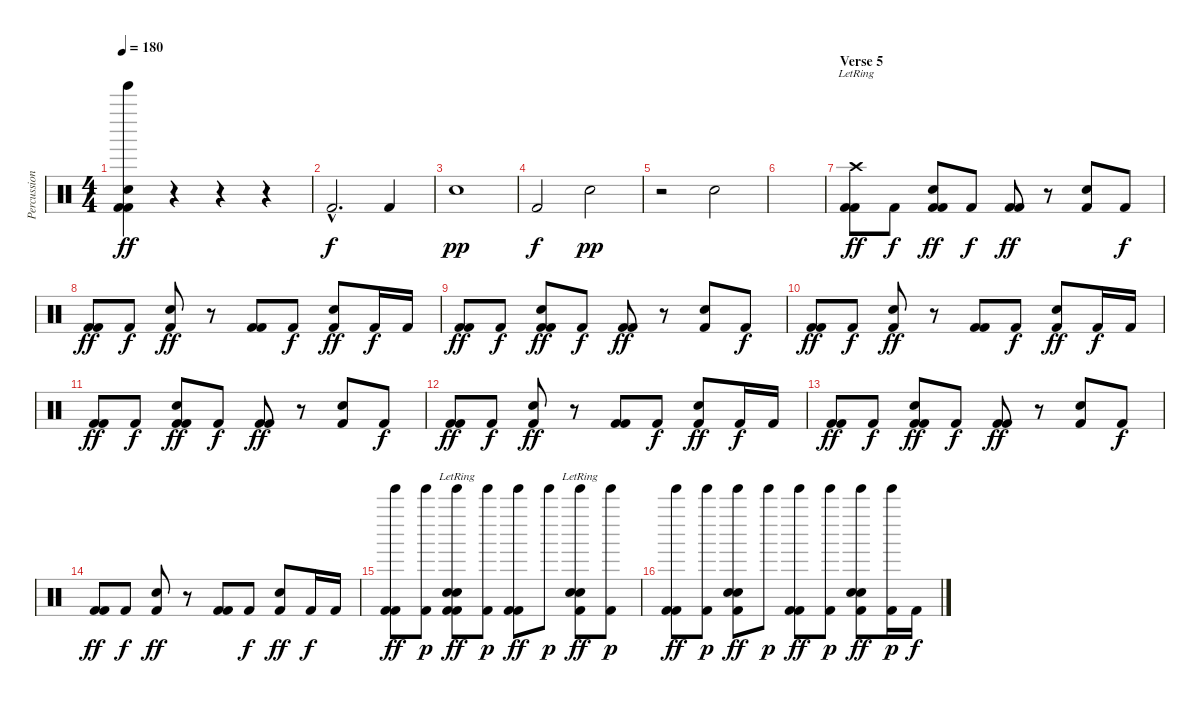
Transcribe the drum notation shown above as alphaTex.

\track ("Percussion" "Percussion") {instrument percussion}
\staff {score}
\articulation defaults
\ts (4 4)
\tempo 180
\clef neutral
\ks c
("Tinkle Bell (hit)" "Electric Snare (hit)" "Kick (hit) 2" "Kick (hit) 2").4{dy ff} r.4 r.4 r.4 |
"Kick (hit) 2"{hac}.2{d dy f} "Kick (hit) 2".4 |
"Electric Snare (hit)".1{dy pp} |
"Kick (hit) 2".2{dy f} "Electric Snare (hit)".2{dy pp} |
r.2 "Electric Snare (hit)".2 |
|
\section ("" "Verse 5")
("Crash high (hit)"{lr} "Kick (hit) 2" "Kick (hit) 2").8{dy ff} "Kick (hit) 2".8{dy f} ("Electric Snare (hit)" "Kick (hit) 2" "Kick (hit) 2").8{dy ff} "Kick (hit) 2".8{dy f} ("Kick (hit) 2" "Kick (hit) 2").8{dy ff} r.8 ("Electric Snare (hit)" "Kick (hit) 2").8 "Kick (hit) 2".8{dy f} |
("Kick (hit) 2" "Kick (hit) 2").8{dy ff} "Kick (hit) 2".8{dy f} ("Electric Snare (hit)" "Kick (hit) 2").8{dy ff} r.8 ("Kick (hit) 2" "Kick (hit) 2").8 "Kick (hit) 2".8{dy f} ("Electric Snare (hit)" "Kick (hit) 2").8{dy ff} "Kick (hit) 2".16{dy f} "Kick (hit) 2".16 |
("Kick (hit) 2" "Kick (hit) 2").8{dy ff} "Kick (hit) 2".8{dy f} ("Electric Snare (hit)" "Kick (hit) 2" "Kick (hit) 2").8{dy ff} "Kick (hit) 2".8{dy f} ("Kick (hit) 2" "Kick (hit) 2").8{dy ff} r.8 ("Electric Snare (hit)" "Kick (hit) 2").8 "Kick (hit) 2".8{dy f} |
("Kick (hit) 2" "Kick (hit) 2").8{dy ff} "Kick (hit) 2".8{dy f} ("Electric Snare (hit)" "Kick (hit) 2").8{dy ff} r.8 ("Kick (hit) 2" "Kick (hit) 2").8 "Kick (hit) 2".8{dy f} ("Electric Snare (hit)" "Kick (hit) 2").8{dy ff} "Kick (hit) 2".16{dy f} "Kick (hit) 2".16 |
("Kick (hit) 2" "Kick (hit) 2").8{dy ff} "Kick (hit) 2".8{dy f} ("Electric Snare (hit)" "Kick (hit) 2" "Kick (hit) 2").8{dy ff} "Kick (hit) 2".8{dy f} ("Kick (hit) 2" "Kick (hit) 2").8{dy ff} r.8 ("Electric Snare (hit)" "Kick (hit) 2").8 "Kick (hit) 2".8{dy f} |
("Kick (hit) 2" "Kick (hit) 2").8{dy ff} "Kick (hit) 2".8{dy f} ("Electric Snare (hit)" "Kick (hit) 2").8{dy ff} r.8 ("Kick (hit) 2" "Kick (hit) 2").8 "Kick (hit) 2".8{dy f} ("Electric Snare (hit)" "Kick (hit) 2").8{dy ff} "Kick (hit) 2".16{dy f} "Kick (hit) 2".16 |
("Kick (hit) 2" "Kick (hit) 2").8{dy ff} "Kick (hit) 2".8{dy f} ("Electric Snare (hit)" "Kick (hit) 2" "Kick (hit) 2").8{dy ff} "Kick (hit) 2".8{dy f} ("Kick (hit) 2" "Kick (hit) 2").8{dy ff} r.8 ("Electric Snare (hit)" "Kick (hit) 2").8 "Kick (hit) 2".8{dy f} |
("Kick (hit) 2" "Kick (hit) 2").8{dy ff} "Kick (hit) 2".8{dy f} ("Electric Snare (hit)" "Kick (hit) 2").8{dy ff} r.8 ("Kick (hit) 2" "Kick (hit) 2").8 "Kick (hit) 2".8{dy f} ("Electric Snare (hit)" "Kick (hit) 2").8{dy ff} "Kick (hit) 2".16{dy f} "Kick (hit) 2".16 |
("Tinkle Bell (hit)" "Kick (hit) 2" "Kick (hit) 2").8{dy ff} ("Tinkle Bell (hit)" "Kick (hit) 2").8{dy p} ("Tinkle Bell (hit)" "Snare (hit) 2"{lr} "Electric Snare (hit)" "Kick (hit) 2" "Kick (hit) 2").8{dy ff} ("Tinkle Bell (hit)" "Kick (hit) 2").8{dy p} ("Tinkle Bell (hit)" "Kick (hit) 2" "Kick (hit) 2").8{dy ff} "Tinkle Bell (hit)".8{dy p} ("Tinkle Bell (hit)" "Snare (hit) 2"{lr} "Electric Snare (hit)" "Kick (hit) 2").8{dy ff} ("Tinkle Bell (hit)" "Kick (hit) 2").8{dy p} |
("Tinkle Bell (hit)" "Kick (hit) 2" "Kick (hit) 2").8{dy ff} ("Tinkle Bell (hit)" "Kick (hit) 2").8{dy p} ("Tinkle Bell (hit)" "Snare (hit) 2" "Electric Snare (hit)" "Kick (hit) 2").8{dy ff} "Tinkle Bell (hit)".8{dy p} ("Tinkle Bell (hit)" "Kick (hit) 2" "Kick (hit) 2").8{dy ff} ("Tinkle Bell (hit)" "Kick (hit) 2").8{dy p} ("Tinkle Bell (hit)" "Snare (hit) 2" "Electric Snare (hit)" "Kick (hit) 2").8{dy ff} ("Tinkle Bell (hit)" "Kick (hit) 2").16{dy p} "Kick (hit) 2".16{dy f}
